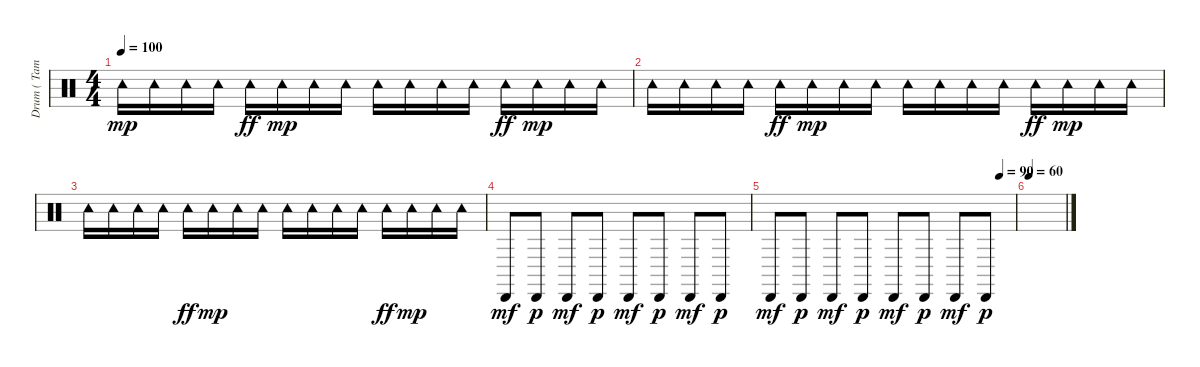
\track ("Drum ( Tambourine )" "Drum ( Tam") {instrument percussion}
\staff {score}
\articulation defaults
\ts (4 4)
\tempo 100
\clef neutral
\ks c "Tambourine (hit)".16{dy mp} "Tambourine (hit)".16 "Tambourine (hit)".16 "Tambourine (hit)".16 "Tambourine (hit)".16{dy ff} "Tambourine (hit)".16{dy mp} "Tambourine (hit)".16 "Tambourine (hit)".16 "Tambourine (hit)".16 "Tambourine (hit)".16 "Tambourine (hit)".16 "Tambourine (hit)".16 "Tambourine (hit)".16{dy ff} "Tambourine (hit)".16{dy mp} "Tambourine (hit)".16 "Tambourine (hit)".16
|
"Tambourine (hit)".16 "Tambourine (hit)".16 "Tambourine (hit)".16 "Tambourine (hit)".16 "Tambourine (hit)".16{dy ff} "Tambourine (hit)".16{dy mp} "Tambourine (hit)".16 "Tambourine (hit)".16 "Tambourine (hit)".16 "Tambourine (hit)".16 "Tambourine (hit)".16 "Tambourine (hit)".16 "Tambourine (hit)".16{dy ff} "Tambourine (hit)".16{dy mp} "Tambourine (hit)".16 "Tambourine (hit)".16 |
"Tambourine (hit)".16 "Tambourine (hit)".16 "Tambourine (hit)".16 "Tambourine (hit)".16 "Tambourine (hit)".16{dy ff} "Tambourine (hit)".16{dy mp} "Tambourine (hit)".16 "Tambourine (hit)".16 "Tambourine (hit)".16 "Tambourine (hit)".16 "Tambourine (hit)".16 "Tambourine (hit)".16 "Tambourine (hit)".16{dy ff} "Tambourine (hit)".16{dy mp} "Tambourine (hit)".16 "Tambourine (hit)".16 |
"Cabasa (hit)".8{dy mf volume 7} "Cabasa (hit)".8{dy p} "Cabasa (hit)".8{dy mf} "Cabasa (hit)".8{dy p} "Cabasa (hit)".8{dy mf} "Cabasa (hit)".8{dy p} "Cabasa (hit)".8{dy mf} "Cabasa (hit)".8{dy p} |
\tempo (90 0.9375)
"Cabasa (hit)".8{dy mf} "Cabasa (hit)".8{dy p} "Cabasa (hit)".8{dy mf} "Cabasa (hit)".8{dy p} "Cabasa (hit)".8{dy mf} "Cabasa (hit)".8{dy p} "Cabasa (hit)".8{dy mf} "Cabasa (hit)".8{dy p} |
\tempo 60
